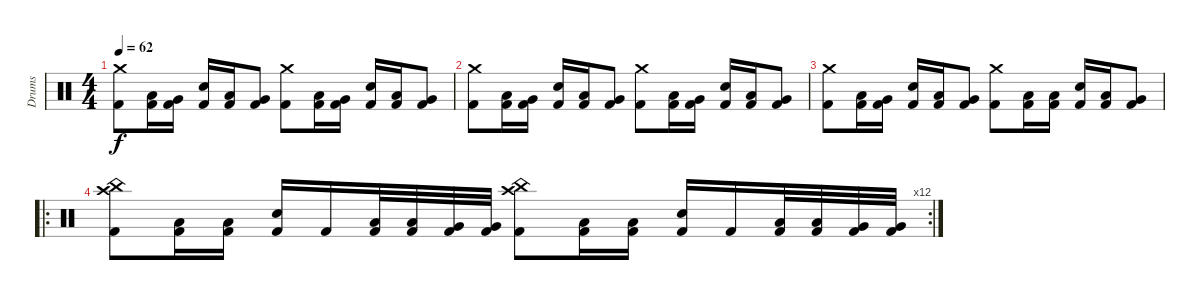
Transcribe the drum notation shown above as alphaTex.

\track ("Drums" "Drums") {instrument percussion}
\staff {score}
\articulation defaults
\ts (4 4)
\tempo 62
\clef neutral
\ks c
("Crash medium (hit)" "Kick (hit) 2").8{dy f} ("Low Tom (hit)" "Kick (hit) 2").16 ("Very Low Tom (hit)" "Kick (hit) 2").16 ("Electric Snare (hit)" "Kick (hit) 2").16 ("Low Tom (hit)" "Kick (hit) 2").16 ("Very Low Tom (hit)" "Kick (hit) 2").8 ("Crash medium (hit)" "Kick (hit) 2").8 ("Low Tom (hit)" "Kick (hit) 2").16 ("Very Low Tom (hit)" "Kick (hit) 2").16 ("Electric Snare (hit)" "Kick (hit) 2").16 ("Low Tom (hit)" "Kick (hit) 2").16 ("Very Low Tom (hit)" "Kick (hit) 2").8 |
("Crash medium (hit)" "Kick (hit) 2").8 ("Low Tom (hit)" "Kick (hit) 2").16 ("Very Low Tom (hit)" "Kick (hit) 2").16 ("Electric Snare (hit)" "Kick (hit) 2").16 ("Low Tom (hit)" "Kick (hit) 2").16 ("Very Low Tom (hit)" "Kick (hit) 2").8 ("Crash medium (hit)" "Kick (hit) 2").8 ("Low Tom (hit)" "Kick (hit) 2").16 ("Very Low Tom (hit)" "Kick (hit) 2").16 ("Electric Snare (hit)" "Kick (hit) 2").16 ("Low Tom (hit)" "Kick (hit) 2").16 ("Very Low Tom (hit)" "Kick (hit) 2").8 |
("Crash medium (hit)" "Kick (hit) 2").8 ("Low Tom (hit)" "Kick (hit) 2").16 ("Very Low Tom (hit)" "Kick (hit) 2").16 ("Electric Snare (hit)" "Kick (hit) 2").16 ("Low Tom (hit)" "Kick (hit) 2").16 ("Very Low Tom (hit)" "Kick (hit) 2").8 ("Crash medium (hit)" "Kick (hit) 2").8 ("Low Tom (hit)" "Kick (hit) 2").16 ("Low Tom (hit)" "Kick (hit) 2").16 ("Electric Snare (hit)" "Kick (hit) 2").16 ("Low Tom (hit)" "Kick (hit) 2").16 ("Very Low Tom (hit)" "Kick (hit) 2").8 |
\ro
\rc 12
("Crash high (hit)" "China (hit)" "Kick (hit) 2").8 ("Low Tom (hit)" "Kick (hit) 2").16 ("Low Tom (hit)" "Kick (hit) 2").16 ("Electric Snare (hit)" "Kick (hit) 2").16 "Kick (hit) 2".16 ("Low Tom (hit)" "Kick (hit) 2").32 ("Low Tom (hit)" "Kick (hit) 2").32 ("Very Low Tom (hit)" "Kick (hit) 2").32 ("Very Low Tom (hit)" "Kick (hit) 2").32 ("Crash high (hit)" "China (hit)" "Kick (hit) 2").8 ("Low Tom (hit)" "Kick (hit) 2").16 ("Low Tom (hit)" "Kick (hit) 2").16 ("Electric Snare (hit)" "Kick (hit) 2").16 "Kick (hit) 2".16 ("Low Tom (hit)" "Kick (hit) 2").32 ("Low Tom (hit)" "Kick (hit) 2").32 ("Very Low Tom (hit)" "Kick (hit) 2").32 ("Very Low Tom (hit)" "Kick (hit) 2").32
